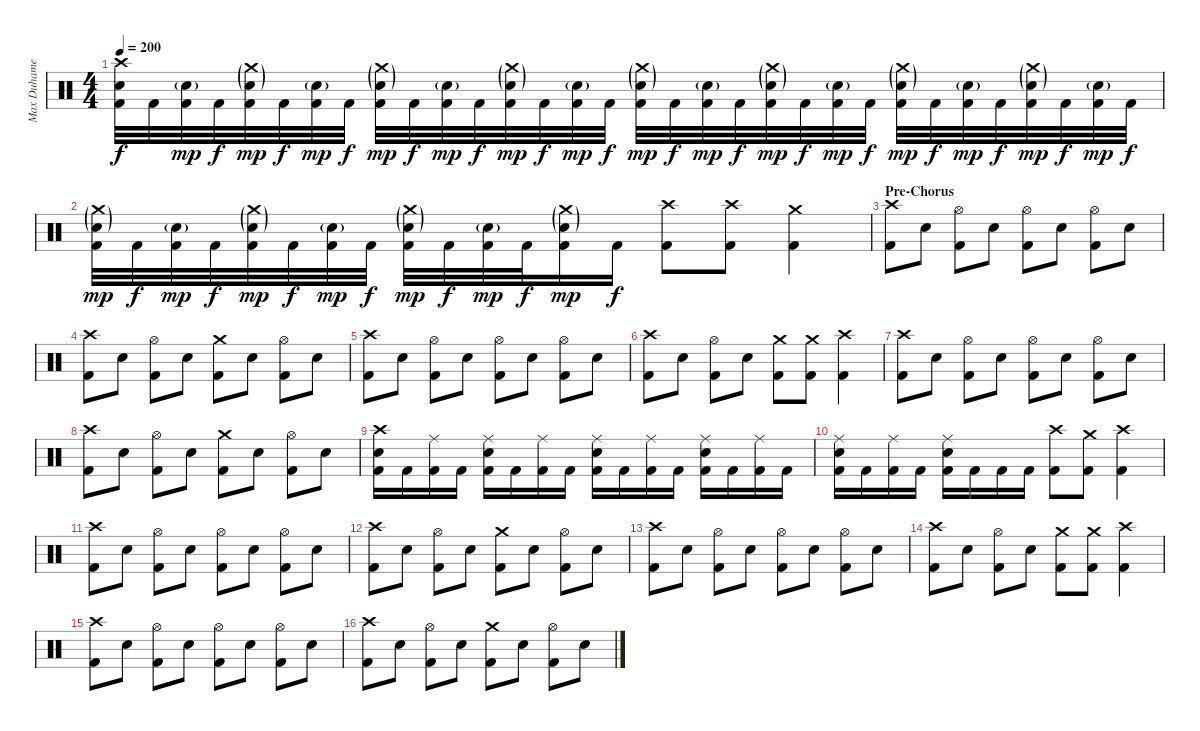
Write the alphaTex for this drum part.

\track ("Max Duhamel" "Max Duhame") {instrument percussion}
\staff {score}
\articulation defaults
\ts (4 4)
\tempo 200
\clef neutral
\ks c
("Crash high (hit)" "Electric Snare (hit)" "Kick (hit) 2").32{dy f} "Kick (hit) 2".32 ("Electric Snare (hit)"{g} "Kick (hit) 2").32{dy mp} "Kick (hit) 2".32{dy f} ("Crash medium (hit)"{g} "Electric Snare (hit)"{g} "Kick (hit) 2").32{dy mp} "Kick (hit) 2".32{dy f} ("Electric Snare (hit)"{g} "Kick (hit) 2").32{dy mp} "Kick (hit) 2".32{dy f} ("Crash medium (hit)"{g} "Electric Snare (hit)"{g} "Kick (hit) 2").32{dy mp} "Kick (hit) 2".32{dy f} ("Electric Snare (hit)"{g} "Kick (hit) 2").32{dy mp} "Kick (hit) 2".32{dy f} ("Crash medium (hit)"{g} "Electric Snare (hit)"{g} "Kick (hit) 2").32{dy mp} "Kick (hit) 2".32{dy f} ("Electric Snare (hit)"{g} "Kick (hit) 2").32{dy mp} "Kick (hit) 2".32{dy f} ("Crash medium (hit)"{g} "Electric Snare (hit)"{g} "Kick (hit) 2").32{dy mp} "Kick (hit) 2".32{dy f} ("Electric Snare (hit)"{g} "Kick (hit) 2").32{dy mp} "Kick (hit) 2".32{dy f} ("Crash medium (hit)"{g} "Electric Snare (hit)"{g} "Kick (hit) 2").32{dy mp} "Kick (hit) 2".32{dy f} ("Electric Snare (hit)"{g} "Kick (hit) 2").32{dy mp} "Kick (hit) 2".32{dy f} ("Crash medium (hit)"{g} "Electric Snare (hit)"{g} "Kick (hit) 2").32{dy mp} "Kick (hit) 2".32{dy f} ("Electric Snare (hit)"{g} "Kick (hit) 2").32{dy mp} "Kick (hit) 2".32{dy f} ("Crash medium (hit)"{g} "Electric Snare (hit)"{g} "Kick (hit) 2").32{dy mp} "Kick (hit) 2".32{dy f} ("Electric Snare (hit)"{g} "Kick (hit) 2").32{dy mp} "Kick (hit) 2".32{dy f} |
("Crash medium (hit)"{g} "Electric Snare (hit)"{g} "Kick (hit) 2").32{dy mp} "Kick (hit) 2".32{dy f} ("Electric Snare (hit)"{g} "Kick (hit) 2").32{dy mp} "Kick (hit) 2".32{dy f} ("Crash medium (hit)"{g} "Electric Snare (hit)"{g} "Kick (hit) 2").32{dy mp} "Kick (hit) 2".32{dy f} ("Electric Snare (hit)"{g} "Kick (hit) 2").32{dy mp} "Kick (hit) 2".32{dy f} ("Crash medium (hit)"{g} "Electric Snare (hit)"{g} "Kick (hit) 2").32{dy mp} "Kick (hit) 2".32{dy f} ("Electric Snare (hit)"{g} "Kick (hit) 2").32{dy mp} "Kick (hit) 2".32{dy f} ("Crash medium (hit)"{g} "Electric Snare (hit)"{g} "Kick (hit) 2").16{dy mp} "Kick (hit) 2".16{dy f} ("Crash high (hit)" "Kick (hit) 2").8 ("Crash high (hit)" "Kick (hit) 2").8 ("Crash medium (hit)" "Kick (hit) 2").4 |
\section ("" "Pre-Chorus")
("Crash high (hit)" "Kick (hit) 2").8 "Electric Snare (hit)".8 ("Hi-Hat (open)" "Kick (hit) 2").8 "Electric Snare (hit)".8 ("Hi-Hat (open)" "Kick (hit) 2").8 "Electric Snare (hit)".8 ("Hi-Hat (open)" "Kick (hit) 2").8 "Electric Snare (hit)".8 |
("Crash high (hit)" "Kick (hit) 2").8 "Electric Snare (hit)".8 ("Hi-Hat (open)" "Kick (hit) 2").8 "Electric Snare (hit)".8 ("Crash medium (hit)" "Kick (hit) 2").8 "Electric Snare (hit)".8 ("Hi-Hat (open)" "Kick (hit) 2").8 "Electric Snare (hit)".8 |
("Crash high (hit)" "Kick (hit) 2").8 "Electric Snare (hit)".8 ("Hi-Hat (open)" "Kick (hit) 2").8 "Electric Snare (hit)".8 ("Hi-Hat (open)" "Kick (hit) 2").8 "Electric Snare (hit)".8 ("Hi-Hat (open)" "Kick (hit) 2").8 "Electric Snare (hit)".8 |
("Crash high (hit)" "Kick (hit) 2").8 "Electric Snare (hit)".8 ("Hi-Hat (open)" "Kick (hit) 2").8 "Electric Snare (hit)".8 ("Crash medium (hit)" "Kick (hit) 2").8 ("Crash medium (hit)" "Kick (hit) 2").8 ("Crash high (hit)" "Kick (hit) 2").4 |
("Crash high (hit)" "Kick (hit) 2").8 "Electric Snare (hit)".8 ("Hi-Hat (open)" "Kick (hit) 2").8 "Electric Snare (hit)".8 ("Hi-Hat (open)" "Kick (hit) 2").8 "Electric Snare (hit)".8 ("Hi-Hat (open)" "Kick (hit) 2").8 "Electric Snare (hit)".8 |
("Crash high (hit)" "Kick (hit) 2").8 "Electric Snare (hit)".8 ("Hi-Hat (open)" "Kick (hit) 2").8 "Electric Snare (hit)".8 ("Crash medium (hit)" "Kick (hit) 2").8 "Electric Snare (hit)".8 ("Hi-Hat (open)" "Kick (hit) 2").8 "Electric Snare (hit)".8 |
("Crash high (hit)" "Electric Snare (hit)" "Kick (hit) 2").16 "Kick (hit) 2".16 ("Ride (middle)" "Kick (hit) 2").16 "Kick (hit) 2".16 ("Ride (middle)" "Electric Snare (hit)" "Kick (hit) 2").16 "Kick (hit) 2".16 ("Ride (middle)" "Kick (hit) 2").16 "Kick (hit) 2".16 ("Ride (middle)" "Electric Snare (hit)" "Kick (hit) 2").16 "Kick (hit) 2".16 ("Ride (middle)" "Kick (hit) 2").16 "Kick (hit) 2".16 ("Ride (middle)" "Electric Snare (hit)" "Kick (hit) 2").16 "Kick (hit) 2".16 ("Ride (middle)" "Kick (hit) 2").16 "Kick (hit) 2".16 |
("Ride (middle)" "Electric Snare (hit)" "Kick (hit) 2").16 "Kick (hit) 2".16 ("Ride (middle)" "Kick (hit) 2").16 "Kick (hit) 2".16 ("Ride (middle)" "Electric Snare (hit)" "Kick (hit) 2").16 "Kick (hit) 2".16 "Kick (hit) 2".16 "Kick (hit) 2".16 ("Crash high (hit)" "Kick (hit) 2").8 ("Crash medium (hit)" "Kick (hit) 2").8 ("Crash high (hit)" "Kick (hit) 2").4 |
\section ("" "")
("Crash high (hit)" "Kick (hit) 2").8 "Electric Snare (hit)".8 ("Hi-Hat (open)" "Kick (hit) 2").8 "Electric Snare (hit)".8 ("Hi-Hat (open)" "Kick (hit) 2").8 "Electric Snare (hit)".8 ("Hi-Hat (open)" "Kick (hit) 2").8 "Electric Snare (hit)".8 |
("Crash high (hit)" "Kick (hit) 2").8 "Electric Snare (hit)".8 ("Hi-Hat (open)" "Kick (hit) 2").8 "Electric Snare (hit)".8 ("Crash medium (hit)" "Kick (hit) 2").8 "Electric Snare (hit)".8 ("Hi-Hat (open)" "Kick (hit) 2").8 "Electric Snare (hit)".8 |
("Crash high (hit)" "Kick (hit) 2").8 "Electric Snare (hit)".8 ("Hi-Hat (open)" "Kick (hit) 2").8 "Electric Snare (hit)".8 ("Hi-Hat (open)" "Kick (hit) 2").8 "Electric Snare (hit)".8 ("Hi-Hat (open)" "Kick (hit) 2").8 "Electric Snare (hit)".8 |
("Crash high (hit)" "Kick (hit) 2").8 "Electric Snare (hit)".8 ("Hi-Hat (open)" "Kick (hit) 2").8 "Electric Snare (hit)".8 ("Crash medium (hit)" "Kick (hit) 2").8 ("Crash medium (hit)" "Kick (hit) 2").8 ("Crash high (hit)" "Kick (hit) 2").4 |
("Crash high (hit)" "Kick (hit) 2").8 "Electric Snare (hit)".8 ("Hi-Hat (open)" "Kick (hit) 2").8 "Electric Snare (hit)".8 ("Hi-Hat (open)" "Kick (hit) 2").8 "Electric Snare (hit)".8 ("Hi-Hat (open)" "Kick (hit) 2").8 "Electric Snare (hit)".8 |
("Crash high (hit)" "Kick (hit) 2").8 "Electric Snare (hit)".8 ("Hi-Hat (open)" "Kick (hit) 2").8 "Electric Snare (hit)".8 ("Crash medium (hit)" "Kick (hit) 2").8 "Electric Snare (hit)".8 ("Hi-Hat (open)" "Kick (hit) 2").8 "Electric Snare (hit)".8
